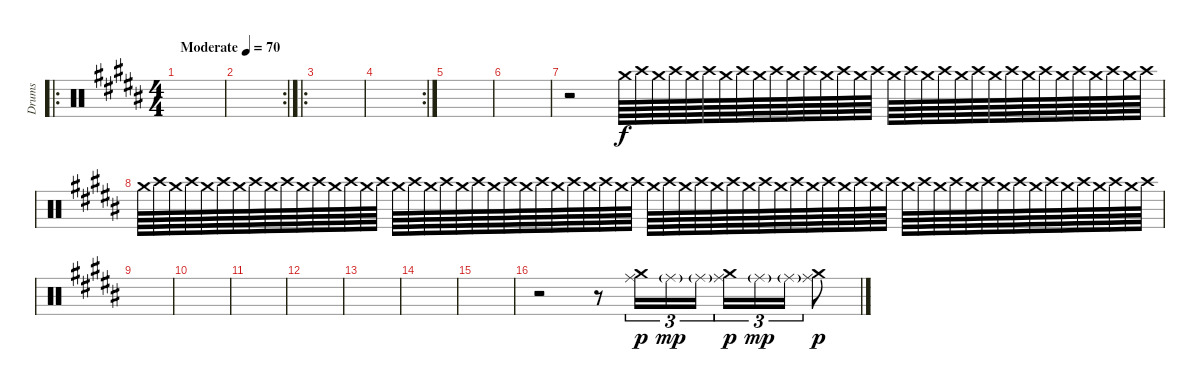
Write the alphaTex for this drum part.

\track ("Drums" "Drums") {instrument percussion}
\staff {score}
\articulation defaults
\ro
\ts (4 4)
\tempo (70 "Moderate")
\clef neutral
\ks g#minor
|
\rc 2
|
\ro
|
\rc 2
|
|
|
r.2 "Crash medium (hit)".64{volume 12} "Crash high (hit)".64 "Crash medium (hit)".64 "Crash high (hit)".64 "Crash medium (hit)".64 "Crash high (hit)".64 "Crash medium (hit)".64 "Crash high (hit)".64 "Crash medium (hit)".64 "Crash high (hit)".64 "Crash medium (hit)".64 "Crash high (hit)".64 "Crash medium (hit)".64 "Crash high (hit)".64 "Crash medium (hit)".64 "Crash high (hit)".64 "Crash medium (hit)".64 "Crash high (hit)".64 "Crash medium (hit)".64 "Crash high (hit)".64 "Crash medium (hit)".64 "Crash high (hit)".64 "Crash medium (hit)".64 "Crash high (hit)".64 "Crash medium (hit)".64 "Crash high (hit)".64 "Crash medium (hit)".64 "Crash high (hit)".64 "Crash medium (hit)".64 "Crash high (hit)".64 "Crash medium (hit)".64 "Crash high (hit)".64 |
"Crash medium (hit)".64 "Crash high (hit)".64 "Crash medium (hit)".64 "Crash high (hit)".64 "Crash medium (hit)".64 "Crash high (hit)".64 "Crash medium (hit)".64 "Crash high (hit)".64 "Crash medium (hit)".64 "Crash high (hit)".64 "Crash medium (hit)".64 "Crash high (hit)".64 "Crash medium (hit)".64 "Crash high (hit)".64 "Crash medium (hit)".64 "Crash high (hit)".64 "Crash medium (hit)".64 "Crash high (hit)".64 "Crash medium (hit)".64 "Crash high (hit)".64 "Crash medium (hit)".64 "Crash high (hit)".64 "Crash medium (hit)".64 "Crash high (hit)".64 "Crash medium (hit)".64 "Crash high (hit)".64 "Crash medium (hit)".64 "Crash high (hit)".64 "Crash medium (hit)".64 "Crash high (hit)".64 "Crash medium (hit)".64 "Crash high (hit)".64 "Crash medium (hit)".64 "Crash high (hit)".64 "Crash medium (hit)".64 "Crash high (hit)".64 "Crash medium (hit)".64 "Crash high (hit)".64 "Crash medium (hit)".64 "Crash high (hit)".64 "Crash medium (hit)".64 "Crash high (hit)".64 "Crash medium (hit)".64 "Crash high (hit)".64 "Crash medium (hit)".64 "Crash high (hit)".64 "Crash medium (hit)".64 "Crash high (hit)".64 "Crash medium (hit)".64 "Crash high (hit)".64 "Crash medium (hit)".64 "Crash high (hit)".64 "Crash medium (hit)".64 "Crash high (hit)".64 "Crash medium (hit)".64 "Crash high (hit)".64 "Crash medium (hit)".64 "Crash high (hit)".64 "Crash medium (hit)".64 "Crash high (hit)".64 "Crash medium (hit)".64 "Crash high (hit)".64 "Crash medium (hit)".64 "Crash high (hit)".64 |
|
|
|
|
|
|
|
r.2 r.8 ("Crash medium (hit)" "Ride (middle)").16{tu (3 2) dy p} "Ride (middle)"{g}.16{tu (3 2) dy mp} "Ride (middle)"{g}.16{tu (3 2)} ("Crash medium (hit)" "Ride (middle)").16{tu (3 2) dy p} "Ride (middle)"{g}.16{tu (3 2) dy mp} "Ride (middle)"{g}.16{tu (3 2)} ("Crash medium (hit)" "Ride (middle)").8{dy p}
